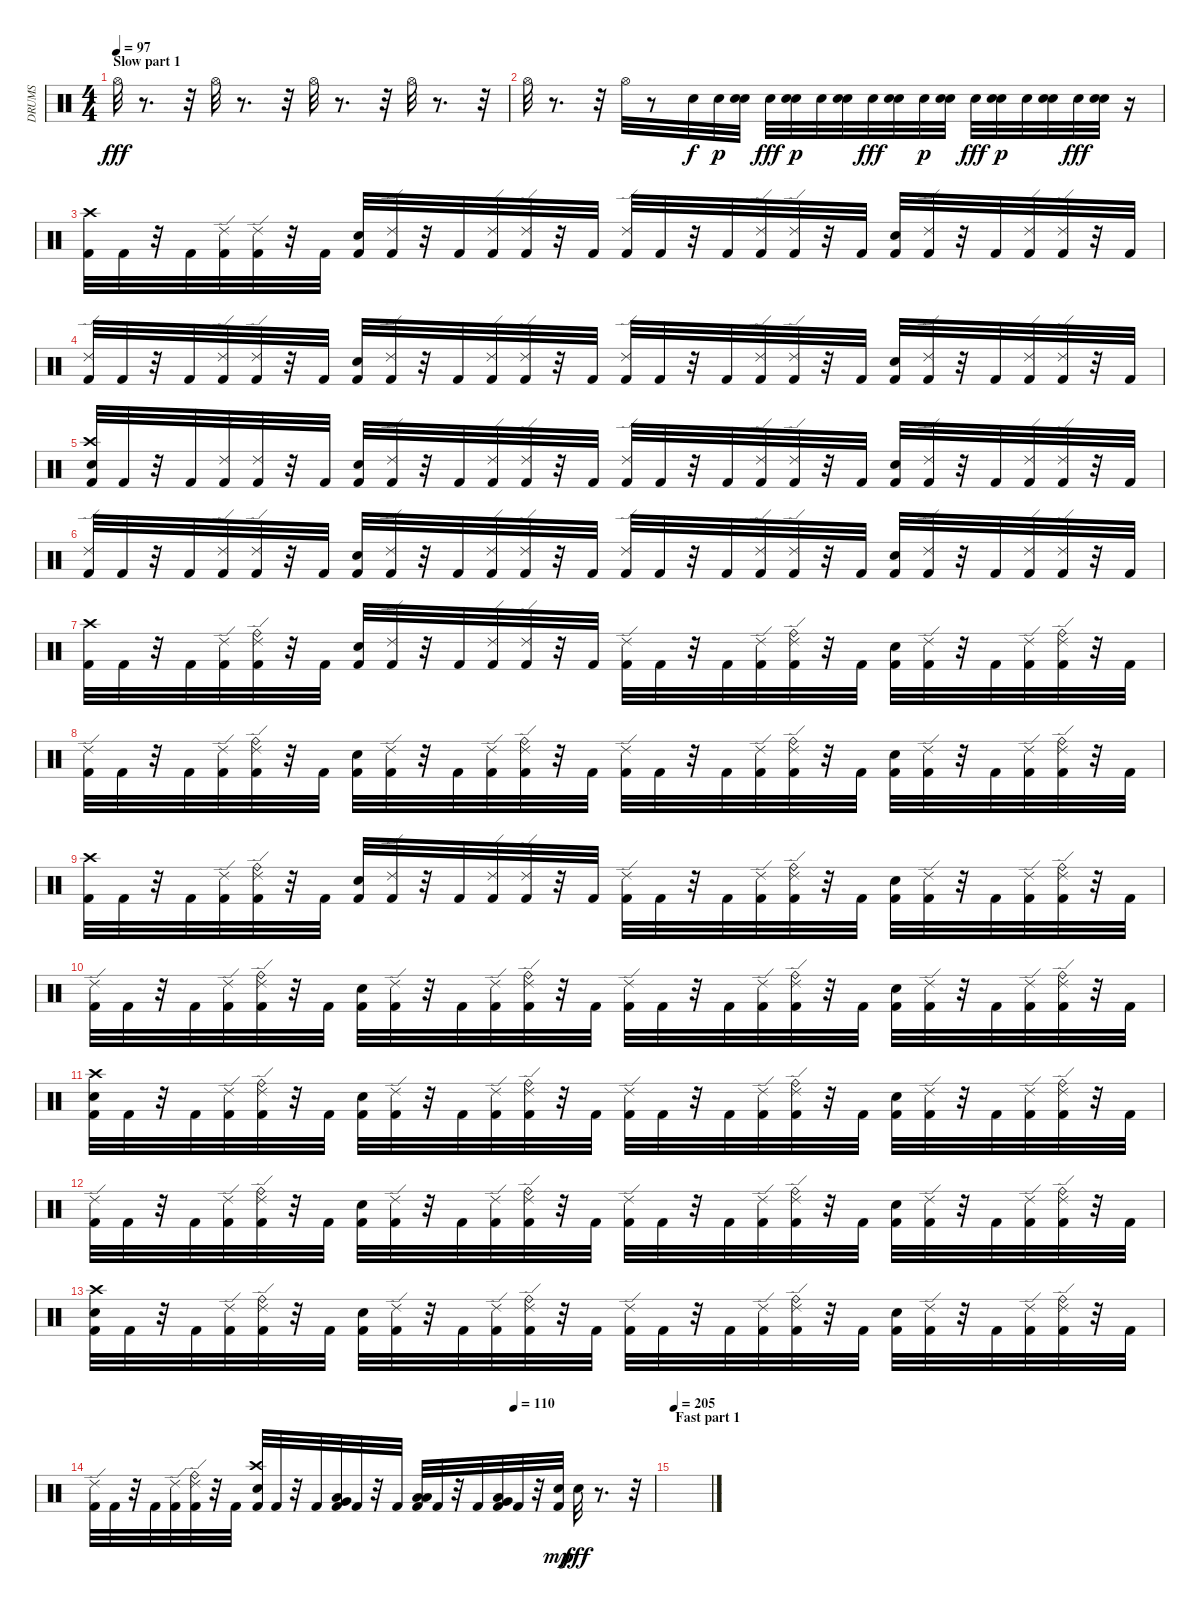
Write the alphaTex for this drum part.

\track ("DRUMS" "DRUMS") {instrument percussion}
\staff {score}
\articulation defaults
\ts (4 4)
\section ("" "Slow part 1")
\tempo 97
\clef neutral
\ks c "Hi-Hat (open)".32{dy fff}
r.8{d} r.32 "Hi-Hat (open)".32 r.8{d} r.32 "Hi-Hat (open)".32 r.8{d} r.32 "Hi-Hat (open)".32 r.8{d} r.32 |
"Hi-Hat (open)".32 r.8{d} r.32 "Hi-Hat (open)".32 r.8 "Electric Snare (hit)".32{dy f} "Electric Snare (hit)".32{dy p} ("Electric Snare (hit)" "Electric Snare (hit)").32 "Electric Snare (hit)".32{dy fff} ("Electric Snare (hit)" "Electric Snare (hit)").32{dy p} "Electric Snare (hit)".32 ("Electric Snare (hit)" "Electric Snare (hit)").32 "Electric Snare (hit)".32{dy fff} ("Electric Snare (hit)" "Electric Snare (hit)").32 "Electric Snare (hit)".32{dy p} ("Electric Snare (hit)" "Electric Snare (hit)").32 "Electric Snare (hit)".32{dy fff} ("Electric Snare (hit)" "Electric Snare (hit)").32{dy p} "Electric Snare (hit)".32 ("Electric Snare (hit)" "Electric Snare (hit)").32 "Electric Snare (hit)".32{dy fff} ("Electric Snare (hit)" "Electric Snare (hit)").32 r.16 |
("Crash high (hit)" "Kick (hit) 2").32 "Kick (hit) 2".32 r.32 "Kick (hit) 2".32 ("Ride (edge) 2" "Kick (hit) 2").32 ("Ride (edge) 2" "Kick (hit) 2").32 r.32 "Kick (hit) 2".32 ("Electric Snare (hit)" "Kick (hit) 2").32 ("Ride (edge) 2" "Kick (hit) 2").32 r.32 "Kick (hit) 2".32 ("Ride (edge) 2" "Kick (hit) 2").32 ("Ride (edge) 2" "Kick (hit) 2").32 r.32 "Kick (hit) 2".32 ("Ride (edge) 2" "Kick (hit) 2").32 "Kick (hit) 2".32 r.32 "Kick (hit) 2".32 ("Ride (edge) 2" "Kick (hit) 2").32 ("Ride (edge) 2" "Kick (hit) 2").32 r.32 "Kick (hit) 2".32 ("Electric Snare (hit)" "Kick (hit) 2").32 ("Ride (edge) 2" "Kick (hit) 2").32 r.32 "Kick (hit) 2".32 ("Ride (edge) 2" "Kick (hit) 2").32 ("Ride (edge) 2" "Kick (hit) 2").32 r.32 "Kick (hit) 2".32 |
("Ride (edge) 2" "Kick (hit) 2").32 "Kick (hit) 2".32 r.32 "Kick (hit) 2".32 ("Ride (edge) 2" "Kick (hit) 2").32 ("Ride (edge) 2" "Kick (hit) 2").32 r.32 "Kick (hit) 2".32 ("Electric Snare (hit)" "Kick (hit) 2").32 ("Ride (edge) 2" "Kick (hit) 2").32 r.32 "Kick (hit) 2".32 ("Ride (edge) 2" "Kick (hit) 2").32 ("Ride (edge) 2" "Kick (hit) 2").32 r.32 "Kick (hit) 2".32 ("Ride (edge) 2" "Kick (hit) 2").32 "Kick (hit) 2".32 r.32 "Kick (hit) 2".32 ("Ride (edge) 2" "Kick (hit) 2").32 ("Ride (edge) 2" "Kick (hit) 2").32 r.32 "Kick (hit) 2".32 ("Electric Snare (hit)" "Kick (hit) 2").32 ("Ride (edge) 2" "Kick (hit) 2").32 r.32 "Kick (hit) 2".32 ("Ride (edge) 2" "Kick (hit) 2").32 ("Ride (edge) 2" "Kick (hit) 2").32 r.32 "Kick (hit) 2".32 |
("Crash high (hit)" "Electric Snare (hit)" "Kick (hit) 2").32 "Kick (hit) 2".32 r.32 "Kick (hit) 2".32 ("Ride (edge) 2" "Kick (hit) 2").32 ("Ride (edge) 2" "Kick (hit) 2").32 r.32 "Kick (hit) 2".32 ("Electric Snare (hit)" "Kick (hit) 2").32 ("Ride (edge) 2" "Kick (hit) 2").32 r.32 "Kick (hit) 2".32 ("Ride (edge) 2" "Kick (hit) 2").32 ("Ride (edge) 2" "Kick (hit) 2").32 r.32 "Kick (hit) 2".32 ("Ride (edge) 2" "Kick (hit) 2").32 "Kick (hit) 2".32 r.32 "Kick (hit) 2".32 ("Ride (edge) 2" "Kick (hit) 2").32 ("Ride (edge) 2" "Kick (hit) 2").32 r.32 "Kick (hit) 2".32 ("Electric Snare (hit)" "Kick (hit) 2").32 ("Ride (edge) 2" "Kick (hit) 2").32 r.32 "Kick (hit) 2".32 ("Ride (edge) 2" "Kick (hit) 2").32 ("Ride (edge) 2" "Kick (hit) 2").32 r.32 "Kick (hit) 2".32 |
("Ride (edge) 2" "Kick (hit) 2").32 "Kick (hit) 2".32 r.32 "Kick (hit) 2".32 ("Ride (edge) 2" "Kick (hit) 2").32 ("Ride (edge) 2" "Kick (hit) 2").32 r.32 "Kick (hit) 2".32 ("Electric Snare (hit)" "Kick (hit) 2").32 ("Ride (edge) 2" "Kick (hit) 2").32 r.32 "Kick (hit) 2".32 ("Ride (edge) 2" "Kick (hit) 2").32 ("Ride (edge) 2" "Kick (hit) 2").32 r.32 "Kick (hit) 2".32 ("Ride (edge) 2" "Kick (hit) 2").32 "Kick (hit) 2".32 r.32 "Kick (hit) 2".32 ("Ride (edge) 2" "Kick (hit) 2").32 ("Ride (edge) 2" "Kick (hit) 2").32 r.32 "Kick (hit) 2".32 ("Electric Snare (hit)" "Kick (hit) 2").32 ("Ride (edge) 2" "Kick (hit) 2").32 r.32 "Kick (hit) 2".32 ("Ride (edge) 2" "Kick (hit) 2").32 ("Ride (edge) 2" "Kick (hit) 2").32 r.32 "Kick (hit) 2".32 |
("Crash high (hit)" "Kick (hit) 2").32 "Kick (hit) 2".32 r.32 "Kick (hit) 2".32 ("Ride (edge) 2" "Kick (hit) 2").32 ("Ride (bell)" "Ride (edge) 2" "Kick (hit) 2").32 r.32 "Kick (hit) 2".32 ("Electric Snare (hit)" "Kick (hit) 2").32 ("Ride (edge) 2" "Kick (hit) 2").32 r.32 "Kick (hit) 2".32 ("Ride (edge) 2" "Kick (hit) 2").32 ("Ride (edge) 2" "Kick (hit) 2").32 r.32 "Kick (hit) 2".32 ("Ride (edge) 2" "Kick (hit) 2").32 "Kick (hit) 2".32 r.32 "Kick (hit) 2".32 ("Ride (edge) 2" "Kick (hit) 2").32 ("Ride (bell)" "Ride (edge) 2" "Kick (hit) 2").32 r.32 "Kick (hit) 2".32 ("Electric Snare (hit)" "Kick (hit) 2").32 ("Ride (edge) 2" "Kick (hit) 2").32 r.32 "Kick (hit) 2".32 ("Ride (edge) 2" "Kick (hit) 2").32 ("Ride (edge) 2" "Ride (bell)" "Kick (hit) 2").32 r.32 "Kick (hit) 2".32 |
("Ride (edge) 2" "Kick (hit) 2").32 "Kick (hit) 2".32 r.32 "Kick (hit) 2".32 ("Ride (edge) 2" "Kick (hit) 2").32 ("Ride (bell)" "Ride (edge) 2" "Kick (hit) 2").32 r.32 "Kick (hit) 2".32 ("Electric Snare (hit)" "Kick (hit) 2").32 ("Ride (edge) 2" "Kick (hit) 2").32 r.32 "Kick (hit) 2".32 ("Ride (edge) 2" "Kick (hit) 2").32 ("Ride (edge) 2" "Ride (bell)" "Kick (hit) 2").32 r.32 "Kick (hit) 2".32 ("Ride (edge) 2" "Kick (hit) 2").32 "Kick (hit) 2".32 r.32 "Kick (hit) 2".32 ("Ride (edge) 2" "Kick (hit) 2").32 ("Ride (bell)" "Ride (edge) 2" "Kick (hit) 2").32 r.32 "Kick (hit) 2".32 ("Electric Snare (hit)" "Kick (hit) 2").32 ("Ride (edge) 2" "Kick (hit) 2").32 r.32 "Kick (hit) 2".32 ("Ride (edge) 2" "Kick (hit) 2").32 ("Ride (edge) 2" "Ride (bell)" "Kick (hit) 2").32 r.32 "Kick (hit) 2".32 |
("Crash high (hit)" "Kick (hit) 2").32 "Kick (hit) 2".32 r.32 "Kick (hit) 2".32 ("Ride (edge) 2" "Kick (hit) 2").32 ("Ride (bell)" "Ride (edge) 2" "Kick (hit) 2").32 r.32 "Kick (hit) 2".32 ("Electric Snare (hit)" "Kick (hit) 2").32 ("Ride (edge) 2" "Kick (hit) 2").32 r.32 "Kick (hit) 2".32 ("Ride (edge) 2" "Kick (hit) 2").32 ("Ride (edge) 2" "Kick (hit) 2").32 r.32 "Kick (hit) 2".32 ("Ride (edge) 2" "Kick (hit) 2").32 "Kick (hit) 2".32 r.32 "Kick (hit) 2".32 ("Ride (edge) 2" "Kick (hit) 2").32 ("Ride (bell)" "Ride (edge) 2" "Kick (hit) 2").32 r.32 "Kick (hit) 2".32 ("Electric Snare (hit)" "Kick (hit) 2").32 ("Ride (edge) 2" "Kick (hit) 2").32 r.32 "Kick (hit) 2".32 ("Ride (edge) 2" "Kick (hit) 2").32 ("Ride (edge) 2" "Ride (bell)" "Kick (hit) 2").32 r.32 "Kick (hit) 2".32 |
("Ride (edge) 2" "Kick (hit) 2").32 "Kick (hit) 2".32 r.32 "Kick (hit) 2".32 ("Ride (edge) 2" "Kick (hit) 2").32 ("Ride (bell)" "Ride (edge) 2" "Kick (hit) 2").32 r.32 "Kick (hit) 2".32 ("Electric Snare (hit)" "Kick (hit) 2").32 ("Ride (edge) 2" "Kick (hit) 2").32 r.32 "Kick (hit) 2".32 ("Ride (edge) 2" "Kick (hit) 2").32 ("Ride (edge) 2" "Ride (bell)" "Kick (hit) 2").32 r.32 "Kick (hit) 2".32 ("Ride (edge) 2" "Kick (hit) 2").32 "Kick (hit) 2".32 r.32 "Kick (hit) 2".32 ("Ride (edge) 2" "Kick (hit) 2").32 ("Ride (bell)" "Ride (edge) 2" "Kick (hit) 2").32 r.32 "Kick (hit) 2".32 ("Electric Snare (hit)" "Kick (hit) 2").32 ("Ride (edge) 2" "Kick (hit) 2").32 r.32 "Kick (hit) 2".32 ("Ride (edge) 2" "Kick (hit) 2").32 ("Ride (edge) 2" "Ride (bell)" "Kick (hit) 2").32 r.32 "Kick (hit) 2".32 |
("Crash high (hit)" "Electric Snare (hit)" "Kick (hit) 2").32 "Kick (hit) 2".32 r.32 "Kick (hit) 2".32 ("Ride (edge) 2" "Kick (hit) 2").32 ("Ride (bell)" "Ride (edge) 2" "Kick (hit) 2").32 r.32 "Kick (hit) 2".32 ("Electric Snare (hit)" "Kick (hit) 2").32 ("Ride (edge) 2" "Kick (hit) 2").32 r.32 "Kick (hit) 2".32 ("Ride (edge) 2" "Kick (hit) 2").32 ("Ride (edge) 2" "Ride (bell)" "Kick (hit) 2").32 r.32 "Kick (hit) 2".32 ("Ride (edge) 2" "Kick (hit) 2").32 "Kick (hit) 2".32 r.32 "Kick (hit) 2".32 ("Ride (edge) 2" "Kick (hit) 2").32 ("Ride (bell)" "Ride (edge) 2" "Kick (hit) 2").32 r.32 "Kick (hit) 2".32 ("Electric Snare (hit)" "Kick (hit) 2").32 ("Ride (edge) 2" "Kick (hit) 2").32 r.32 "Kick (hit) 2".32 ("Ride (edge) 2" "Kick (hit) 2").32 ("Ride (edge) 2" "Ride (bell)" "Kick (hit) 2").32 r.32 "Kick (hit) 2".32 |
("Ride (edge) 2" "Kick (hit) 2").32 "Kick (hit) 2".32 r.32 "Kick (hit) 2".32 ("Ride (edge) 2" "Kick (hit) 2").32 ("Ride (bell)" "Ride (edge) 2" "Kick (hit) 2").32 r.32 "Kick (hit) 2".32 ("Electric Snare (hit)" "Kick (hit) 2").32 ("Ride (edge) 2" "Kick (hit) 2").32 r.32 "Kick (hit) 2".32 ("Ride (edge) 2" "Kick (hit) 2").32 ("Ride (edge) 2" "Ride (bell)" "Kick (hit) 2").32 r.32 "Kick (hit) 2".32 ("Ride (edge) 2" "Kick (hit) 2").32 "Kick (hit) 2".32 r.32 "Kick (hit) 2".32 ("Ride (edge) 2" "Kick (hit) 2").32 ("Ride (bell)" "Ride (edge) 2" "Kick (hit) 2").32 r.32 "Kick (hit) 2".32 ("Electric Snare (hit)" "Kick (hit) 2").32 ("Ride (edge) 2" "Kick (hit) 2").32 r.32 "Kick (hit) 2".32 ("Ride (edge) 2" "Kick (hit) 2").32 ("Ride (edge) 2" "Ride (bell)" "Kick (hit) 2").32 r.32 "Kick (hit) 2".32 |
("Crash high (hit)" "Electric Snare (hit)" "Kick (hit) 2").32 "Kick (hit) 2".32 r.32 "Kick (hit) 2".32 ("Ride (edge) 2" "Kick (hit) 2").32 ("Ride (bell)" "Ride (edge) 2" "Kick (hit) 2").32 r.32 "Kick (hit) 2".32 ("Electric Snare (hit)" "Kick (hit) 2").32 ("Ride (edge) 2" "Kick (hit) 2").32 r.32 "Kick (hit) 2".32 ("Ride (edge) 2" "Kick (hit) 2").32 ("Ride (edge) 2" "Ride (bell)" "Kick (hit) 2").32 r.32 "Kick (hit) 2".32 ("Ride (edge) 2" "Kick (hit) 2").32 "Kick (hit) 2".32 r.32 "Kick (hit) 2".32 ("Ride (edge) 2" "Kick (hit) 2").32 ("Ride (bell)" "Ride (edge) 2" "Kick (hit) 2").32 r.32 "Kick (hit) 2".32 ("Electric Snare (hit)" "Kick (hit) 2").32 ("Ride (edge) 2" "Kick (hit) 2").32 r.32 "Kick (hit) 2".32 ("Ride (edge) 2" "Kick (hit) 2").32 ("Ride (edge) 2" "Ride (bell)" "Kick (hit) 2").32 r.32 "Kick (hit) 2".32 |
\tempo (110 0.75)
("Ride (edge) 2" "Kick (hit) 2").32 "Kick (hit) 2".32 r.32 "Kick (hit) 2".32 ("Ride (edge) 2" "Kick (hit) 2").32 ("Ride (bell)" "Ride (edge) 2" "Kick (hit) 2").32 r.32 "Kick (hit) 2".32 ("Crash high (hit)" "Electric Snare (hit)" "Kick (hit) 2").32 "Kick (hit) 2".32 r.32 "Kick (hit) 2".32 ("Low Tom (hit)" "Very Low Tom (hit)" "Kick (hit) 2").32 "Kick (hit) 2".32 r.32 "Kick (hit) 2".32 ("Low Tom (hit)" "Low Floor Tom (hit)" "Kick (hit) 2").32 "Kick (hit) 2".32 r.32 "Kick (hit) 2".32 ("Very Low Tom (hit)" "Low Floor Tom (hit)" "Kick (hit) 2").32 "Kick (hit) 2".32 r.32 ("Kick (hit) 2" "Electric Snare (hit)").32{dy mp} "Electric Snare (hit)".32{dy fff} r.8{d} r.32 |
\section ("" "Fast part 1")
\tempo 205
